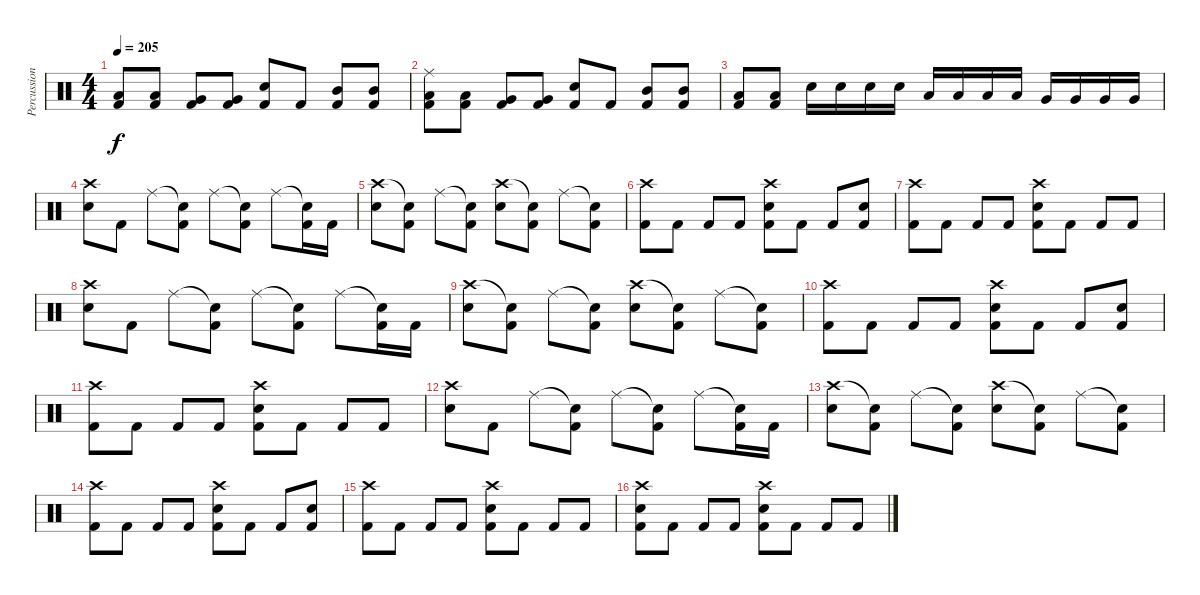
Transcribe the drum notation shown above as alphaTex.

\track ("Percussions" "Percussion") {instrument percussion}
\staff {score}
\articulation defaults
\ts (4 4)
\tempo 205
\clef neutral
\ks c
("Low Tom (hit)" "Kick (hit) 2").8{dy f} ("Low Tom (hit)" "Kick (hit) 2").8 ("Very Low Tom (hit)" "Kick (hit) 2").8 ("Very Low Tom (hit)" "Kick (hit) 2").8 ("Snare (hit) 2" "Kick (hit) 2").8 "Kick (hit) 2".8 ("Mid Tom (hit)" "Kick (hit) 2").8 ("Mid Tom (hit)" "Kick (hit) 2").8 |
("Ride (middle)" "Low Tom (hit)" "Kick (hit) 2").8 ("Low Tom (hit)" "Kick (hit) 2").8 ("Very Low Tom (hit)" "Kick (hit) 2").8 ("Very Low Tom (hit)" "Kick (hit) 2").8 ("Snare (hit) 2" "Kick (hit) 2").8 "Kick (hit) 2".8 ("Mid Tom (hit)" "Kick (hit) 2").8 ("Mid Tom (hit)" "Kick (hit) 2").8 |
("Low Tom (hit)" "Kick (hit) 2").8 ("Low Tom (hit)" "Kick (hit) 2").8 "Snare (hit) 2".16 "Snare (hit) 2".16 "Snare (hit) 2".16 "Snare (hit) 2".16 "Low Tom (hit)".16 "Low Tom (hit)".16 "Low Tom (hit)".16 "Low Tom (hit)".16 "Very Low Tom (hit)".16 "Very Low Tom (hit)".16 "Very Low Tom (hit)".16 "Very Low Tom (hit)".16 |
("Crash high (hit)" "Snare (hit) 2").8 "Kick (hit) 2".8 "Ride (middle)".8 ("Snare (hit)"{t} "Kick (hit) 2").8 "Ride (middle)".8 ("Snare (hit)"{t} "Kick (hit) 2").8 "Ride (middle)".8 ("Snare (hit)"{t} "Kick (hit) 2").16 "Kick (hit) 2".16 |
("Crash high (hit)" "Snare (hit) 2").8 ("Snare (hit)"{t} "Kick (hit) 2").8 "Ride (middle)".8 ("Snare (hit)"{t} "Kick (hit) 2").8 ("Crash high (hit)" "Snare (hit) 2").8 ("Snare (hit)"{t} "Kick (hit) 2").8 "Ride (middle)".8 ("Snare (hit)"{t} "Kick (hit) 2").8 |
("Crash high (hit)" "Kick (hit) 2").8 "Kick (hit) 2".8 "Kick (hit) 2".8 "Kick (hit) 2".8 ("Crash high (hit)" "Snare (hit) 2" "Kick (hit) 2").8 "Kick (hit) 2".8 "Kick (hit) 2".8 ("Snare (hit) 2" "Kick (hit) 2").8 |
("Crash high (hit)" "Kick (hit) 2").8 "Kick (hit) 2".8 "Kick (hit) 2".8 "Kick (hit) 2".8 ("Crash high (hit)" "Snare (hit) 2" "Kick (hit) 2").8 "Kick (hit) 2".8 "Kick (hit) 2".8 "Kick (hit) 2".8 |
("Crash high (hit)" "Snare (hit) 2").8 "Kick (hit) 2".8 "Ride (middle)".8 ("Snare (hit)"{t} "Kick (hit) 2").8 "Ride (middle)".8 ("Snare (hit)"{t} "Kick (hit) 2").8 "Ride (middle)".8 ("Snare (hit)"{t} "Kick (hit) 2").16 "Kick (hit) 2".16 |
("Crash high (hit)" "Snare (hit) 2").8 ("Snare (hit)"{t} "Kick (hit) 2").8 "Ride (middle)".8 ("Snare (hit)"{t} "Kick (hit) 2").8 ("Crash high (hit)" "Snare (hit) 2").8 ("Snare (hit)"{t} "Kick (hit) 2").8 "Ride (middle)".8 ("Snare (hit)"{t} "Kick (hit) 2").8 |
("Crash high (hit)" "Kick (hit) 2").8 "Kick (hit) 2".8 "Kick (hit) 2".8 "Kick (hit) 2".8 ("Crash high (hit)" "Snare (hit) 2" "Kick (hit) 2").8 "Kick (hit) 2".8 "Kick (hit) 2".8 ("Snare (hit) 2" "Kick (hit) 2").8 |
("Crash high (hit)" "Kick (hit) 2").8 "Kick (hit) 2".8 "Kick (hit) 2".8 "Kick (hit) 2".8 ("Crash high (hit)" "Snare (hit) 2" "Kick (hit) 2").8 "Kick (hit) 2".8 "Kick (hit) 2".8 "Kick (hit) 2".8 |
("Crash high (hit)" "Snare (hit) 2").8 "Kick (hit) 2".8 "Ride (middle)".8 ("Snare (hit)"{t} "Kick (hit) 2").8 "Ride (middle)".8 ("Snare (hit)"{t} "Kick (hit) 2").8 "Ride (middle)".8 ("Snare (hit)"{t} "Kick (hit) 2").16 "Kick (hit) 2".16 |
("Crash high (hit)" "Snare (hit) 2").8 ("Snare (hit)"{t} "Kick (hit) 2").8 "Ride (middle)".8 ("Snare (hit)"{t} "Kick (hit) 2").8 ("Crash high (hit)" "Snare (hit) 2").8 ("Snare (hit)"{t} "Kick (hit) 2").8 "Ride (middle)".8 ("Snare (hit)"{t} "Kick (hit) 2").8 |
("Crash high (hit)" "Kick (hit) 2").8 "Kick (hit) 2".8 "Kick (hit) 2".8 "Kick (hit) 2".8 ("Crash high (hit)" "Snare (hit) 2" "Kick (hit) 2").8 "Kick (hit) 2".8 "Kick (hit) 2".8 ("Snare (hit) 2" "Kick (hit) 2").8 |
("Crash high (hit)" "Kick (hit) 2").8 "Kick (hit) 2".8 "Kick (hit) 2".8 "Kick (hit) 2".8 ("Crash high (hit)" "Snare (hit) 2" "Kick (hit) 2").8 "Kick (hit) 2".8 "Kick (hit) 2".8 "Kick (hit) 2".8 |
("Crash high (hit)" "Snare (hit) 2" "Kick (hit) 2").8 "Kick (hit) 2".8 "Kick (hit) 2".8 "Kick (hit) 2".8 ("Crash high (hit)" "Snare (hit) 2" "Kick (hit) 2").8 "Kick (hit) 2".8 "Kick (hit) 2".8 "Kick (hit) 2".8
